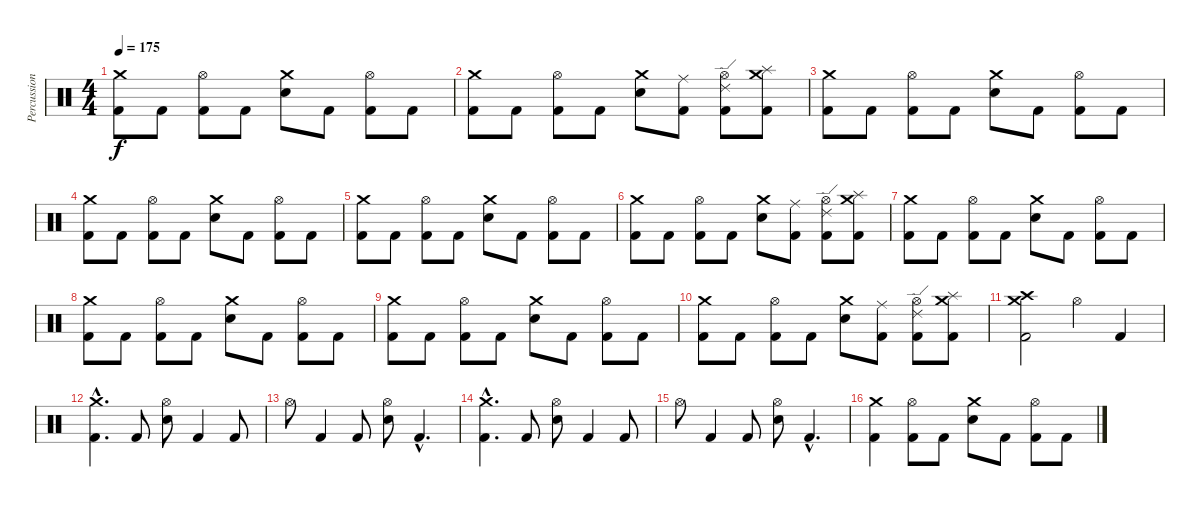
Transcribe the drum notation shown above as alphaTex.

\track ("Percussion" "Percussion") {instrument percussion}
\staff {score}
\articulation defaults
\ts (4 4)
\tempo 175
\clef neutral
\ks c
("Crash medium (hit)" "Kick (hit) 2").8{dy f} "Kick (hit) 2".8 ("Hi-Hat (open)" "Kick (hit) 2").8 "Kick (hit) 2".8 ("Crash medium (hit)" "Electric Snare (hit)").8 "Kick (hit) 2".8 ("Hi-Hat (open)" "Kick (hit) 2").8 "Kick (hit) 2".8 |
("Crash medium (hit)" "Kick (hit) 2").8 "Kick (hit) 2".8 ("Hi-Hat (open)" "Kick (hit) 2").8 "Kick (hit) 2".8 ("Crash medium (hit)" "Electric Snare (hit)").8 ("Ride (middle)" "Kick (hit) 2").8 ("Ride (edge) 2" "Hi-Hat (open)" "Kick (hit) 2").8 ("Splash (hit)" "Crash medium (hit)" "Kick (hit) 2").8 |
("Crash medium (hit)" "Kick (hit) 2").8 "Kick (hit) 2".8 ("Hi-Hat (open)" "Kick (hit) 2").8 "Kick (hit) 2".8 ("Crash medium (hit)" "Electric Snare (hit)").8 "Kick (hit) 2".8 ("Hi-Hat (open)" "Kick (hit) 2").8 "Kick (hit) 2".8 |
("Crash medium (hit)" "Kick (hit) 2").8 "Kick (hit) 2".8 ("Hi-Hat (open)" "Kick (hit) 2").8 "Kick (hit) 2".8 ("Crash medium (hit)" "Electric Snare (hit)").8 "Kick (hit) 2".8 ("Hi-Hat (open)" "Kick (hit) 2").8 "Kick (hit) 2".8 |
("Crash medium (hit)" "Kick (hit) 2").8 "Kick (hit) 2".8 ("Hi-Hat (open)" "Kick (hit) 2").8 "Kick (hit) 2".8 ("Crash medium (hit)" "Electric Snare (hit)").8 "Kick (hit) 2".8 ("Hi-Hat (open)" "Kick (hit) 2").8 "Kick (hit) 2".8 |
("Crash medium (hit)" "Kick (hit) 2").8 "Kick (hit) 2".8 ("Hi-Hat (open)" "Kick (hit) 2").8 "Kick (hit) 2".8 ("Crash medium (hit)" "Electric Snare (hit)").8 ("Ride (middle)" "Kick (hit) 2").8 ("Ride (edge) 2" "Hi-Hat (open)" "Kick (hit) 2").8 ("Splash (hit)" "Crash medium (hit)" "Kick (hit) 2").8 |
("Crash medium (hit)" "Kick (hit) 2").8 "Kick (hit) 2".8 ("Hi-Hat (open)" "Kick (hit) 2").8 "Kick (hit) 2".8 ("Crash medium (hit)" "Electric Snare (hit)").8 "Kick (hit) 2".8 ("Hi-Hat (open)" "Kick (hit) 2").8 "Kick (hit) 2".8 |
("Crash medium (hit)" "Kick (hit) 2").8 "Kick (hit) 2".8 ("Hi-Hat (open)" "Kick (hit) 2").8 "Kick (hit) 2".8 ("Crash medium (hit)" "Electric Snare (hit)").8 "Kick (hit) 2".8 ("Hi-Hat (open)" "Kick (hit) 2").8 "Kick (hit) 2".8 |
("Crash medium (hit)" "Kick (hit) 2").8 "Kick (hit) 2".8 ("Hi-Hat (open)" "Kick (hit) 2").8 "Kick (hit) 2".8 ("Crash medium (hit)" "Electric Snare (hit)").8 "Kick (hit) 2".8 ("Hi-Hat (open)" "Kick (hit) 2").8 "Kick (hit) 2".8 |
("Crash medium (hit)" "Kick (hit) 2").8 "Kick (hit) 2".8 ("Hi-Hat (open)" "Kick (hit) 2").8 "Kick (hit) 2".8 ("Crash medium (hit)" "Electric Snare (hit)").8 ("Ride (middle)" "Kick (hit) 2").8 ("Ride (edge) 2" "Hi-Hat (open)" "Kick (hit) 2").8 ("Splash (hit)" "Crash medium (hit)" "Kick (hit) 2").8 |
("Crash high (hit)" "Crash medium (hit)" "Kick (hit) 2").2 "Hi-Hat (open)".4 "Kick (hit) 2".4 |
("Crash medium (hit)"{hac} "Kick (hit) 2"{hac}).4{d} "Kick (hit) 2".8 ("Hi-Hat (open)" "Electric Snare (hit)").8 "Kick (hit) 2".4 "Kick (hit) 2".8 |
"Hi-Hat (open)".8 "Kick (hit) 2".4 "Kick (hit) 2".8 ("Hi-Hat (open)" "Electric Snare (hit)").8 "Kick (hit) 2"{hac}.4{d} |
("Crash medium (hit)"{hac} "Kick (hit) 2"{hac}).4{d} "Kick (hit) 2".8 ("Hi-Hat (open)" "Electric Snare (hit)").8 "Kick (hit) 2".4 "Kick (hit) 2".8 |
"Hi-Hat (open)".8 "Kick (hit) 2".4 "Kick (hit) 2".8 ("Hi-Hat (open)" "Electric Snare (hit)").8 "Kick (hit) 2"{hac}.4{d} |
("Crash medium (hit)" "Kick (hit) 2").4 ("Hi-Hat (open)" "Kick (hit) 2").8 "Kick (hit) 2".8 ("Crash medium (hit)" "Electric Snare (hit)").8 "Kick (hit) 2".8 ("Hi-Hat (open)" "Kick (hit) 2").8 "Kick (hit) 2".8
